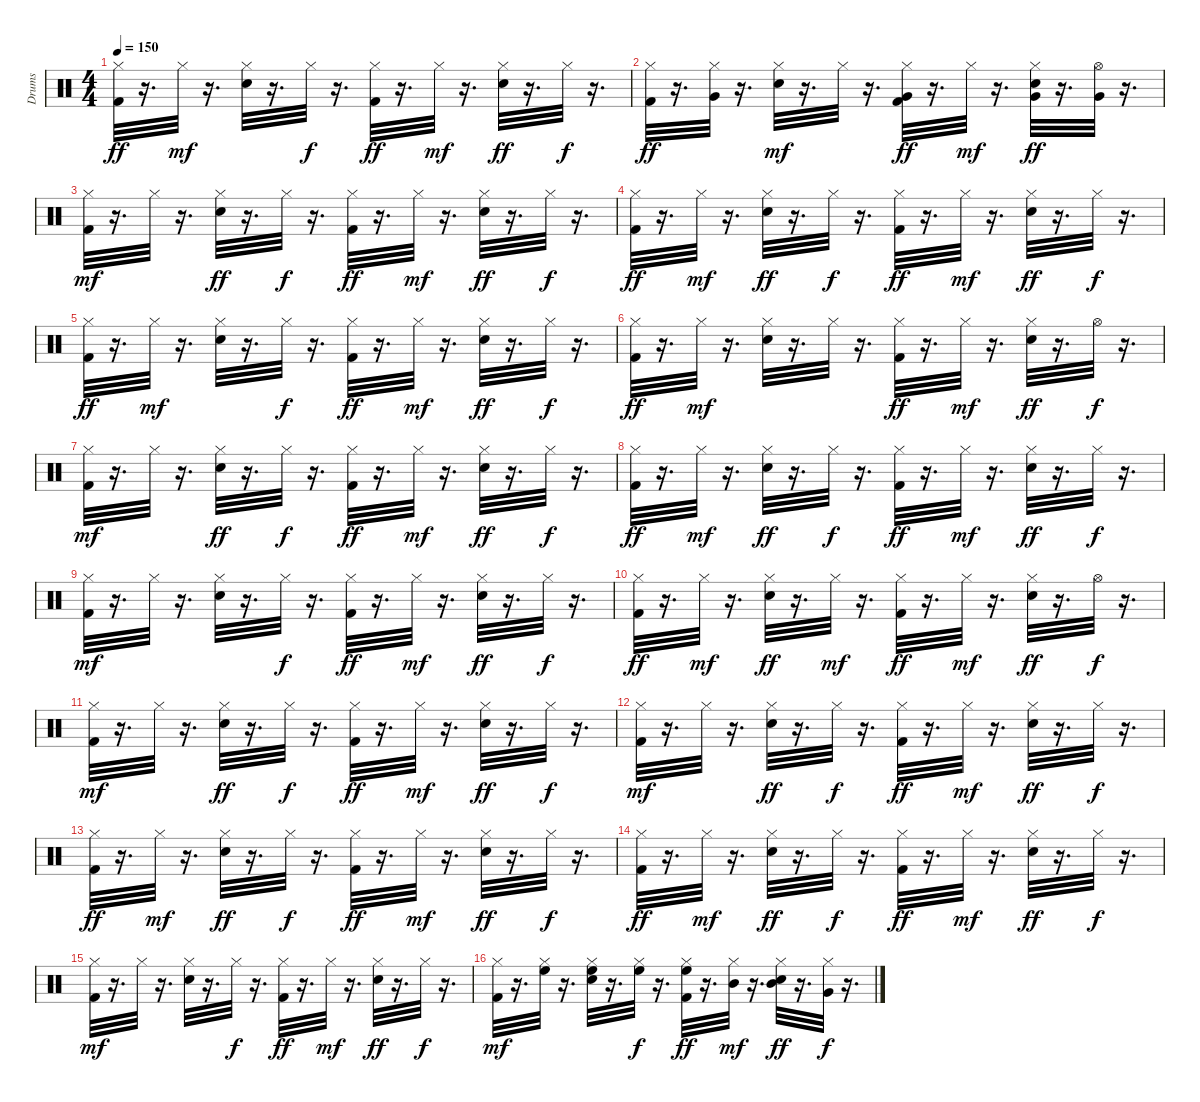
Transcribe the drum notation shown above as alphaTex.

\track ("Drums" "Drums") {instrument percussion}
\staff {score}
\articulation defaults
\ts (4 4)
\tempo 150
\clef neutral
\ks c
("Hi-Hat (closed)" "Kick (hit) 2").32{dy ff} r.16{d} "Hi-Hat (closed)".32{dy mf} r.16{d} ("Snare (hit) 2" "Hi-Hat (closed)").32 r.16{d} "Hi-Hat (closed)".32{dy f} r.16{d} ("Kick (hit) 2" "Hi-Hat (closed)").32{dy ff} r.16{d} "Hi-Hat (closed)".32{dy mf} r.16{d} ("Hi-Hat (closed)" "Snare (hit) 2").32{dy ff} r.16{d} "Hi-Hat (closed)".32{dy f} r.16{d} |
("Hi-Hat (closed)" "Kick (hit) 2").32{dy ff} r.16{d} ("Hi-Hat (closed)" "Very Low Tom (hit)").32 r.16{d} ("Snare (hit) 2" "Hi-Hat (closed)").32{dy mf} r.16{d} "Hi-Hat (closed)".32 r.16{d} ("Kick (hit) 2" "Hi-Hat (closed)" "Very Low Tom (hit)").32{dy ff} r.16{d} "Hi-Hat (closed)".32{dy mf} r.16{d} ("Snare (hit) 2" "Hi-Hat (closed)" "Very Low Tom (hit)").32{dy ff} r.16{d} ("Very Low Tom (hit)" "Hi-Hat (open)").32 r.16{d} |
("Kick (hit) 2" "Hi-Hat (closed)").32{dy mf} r.16{d} "Hi-Hat (closed)".32 r.16{d} ("Hi-Hat (closed)" "Snare (hit) 2").32{dy ff} r.16{d} "Hi-Hat (closed)".32{dy f} r.16{d} ("Kick (hit) 2" "Hi-Hat (closed)").32{dy ff} r.16{d} "Hi-Hat (closed)".32{dy mf} r.16{d} ("Hi-Hat (closed)" "Snare (hit) 2").32{dy ff} r.16{d} "Hi-Hat (closed)".32{dy f} r.16{d} |
("Hi-Hat (closed)" "Kick (hit) 2").32{dy ff} r.16{d} "Hi-Hat (closed)".32{dy mf} r.16{d} ("Hi-Hat (closed)" "Snare (hit) 2").32{dy ff} r.16{d} "Hi-Hat (closed)".32{dy f} r.16{d} ("Kick (hit) 2" "Hi-Hat (closed)").32{dy ff} r.16{d} "Hi-Hat (closed)".32{dy mf} r.16{d} ("Snare (hit) 2" "Hi-Hat (closed)").32{dy ff} r.16{d} "Hi-Hat (closed)".32{dy f} r.16{d} |
("Hi-Hat (closed)" "Kick (hit) 2").32{dy ff} r.16{d} "Hi-Hat (closed)".32{dy mf} r.16{d} ("Snare (hit) 2" "Hi-Hat (closed)").32 r.16{d} "Hi-Hat (closed)".32{dy f} r.16{d} ("Kick (hit) 2" "Hi-Hat (closed)").32{dy ff} r.16{d} "Hi-Hat (closed)".32{dy mf} r.16{d} ("Snare (hit) 2" "Hi-Hat (closed)").32{dy ff} r.16{d} "Hi-Hat (closed)".32{dy f} r.16{d} |
("Kick (hit) 2" "Hi-Hat (closed)").32{dy ff} r.16{d} "Hi-Hat (closed)".32{dy mf} r.16{d} ("Snare (hit) 2" "Hi-Hat (closed)").32 r.16{d} "Hi-Hat (closed)".32 r.16{d} ("Kick (hit) 2" "Hi-Hat (closed)").32{dy ff} r.16{d} "Hi-Hat (closed)".32{dy mf} r.16{d} ("Snare (hit) 2" "Hi-Hat (closed)").32{dy ff} r.16{d} "Hi-Hat (open)".32{dy f} r.16{d} |
("Kick (hit) 2" "Hi-Hat (closed)").32{dy mf} r.16{d} "Hi-Hat (closed)".32 r.16{d} ("Hi-Hat (closed)" "Snare (hit) 2").32{dy ff} r.16{d} "Hi-Hat (closed)".32{dy f} r.16{d} ("Hi-Hat (closed)" "Kick (hit) 2").32{dy ff} r.16{d} "Hi-Hat (closed)".32{dy mf} r.16{d} ("Snare (hit) 2" "Hi-Hat (closed)").32{dy ff} r.16{d} "Hi-Hat (closed)".32{dy f} r.16{d} |
("Hi-Hat (closed)" "Kick (hit) 2").32{dy ff} r.16{d} "Hi-Hat (closed)".32{dy mf} r.16{d} ("Hi-Hat (closed)" "Snare (hit) 2").32{dy ff} r.16{d} "Hi-Hat (closed)".32{dy f} r.16{d} ("Hi-Hat (closed)" "Kick (hit) 2").32{dy ff} r.16{d} "Hi-Hat (closed)".32{dy mf} r.16{d} ("Hi-Hat (closed)" "Snare (hit) 2").32{dy ff} r.16{d} "Hi-Hat (closed)".32{dy f} r.16{d} |
("Kick (hit) 2" "Hi-Hat (closed)").32{dy mf} r.16{d} "Hi-Hat (closed)".32 r.16{d} ("Snare (hit) 2" "Hi-Hat (closed)").32 r.16{d} "Hi-Hat (closed)".32{dy f} r.16{d} ("Kick (hit) 2" "Hi-Hat (closed)").32{dy ff} r.16{d} "Hi-Hat (closed)".32{dy mf} r.16{d} ("Hi-Hat (closed)" "Snare (hit) 2").32{dy ff} r.16{d} "Hi-Hat (closed)".32{dy f} r.16{d} |
("Hi-Hat (closed)" "Kick (hit) 2").32{dy ff} r.16{d} "Hi-Hat (closed)".32{dy mf} r.16{d} ("Hi-Hat (closed)" "Snare (hit) 2").32{dy ff} r.16{d} "Hi-Hat (closed)".32{dy mf} r.16{d} ("Kick (hit) 2" "Hi-Hat (closed)").32{dy ff} r.16{d} "Hi-Hat (closed)".32{dy mf} r.16{d} ("Hi-Hat (closed)" "Snare (hit) 2").32{dy ff} r.16{d} "Hi-Hat (open)".32{dy f} r.16{d} |
("Kick (hit) 2" "Hi-Hat (closed)").32{dy mf} r.16{d} "Hi-Hat (closed)".32 r.16{d} ("Hi-Hat (closed)" "Snare (hit) 2").32{dy ff} r.16{d} "Hi-Hat (closed)".32{dy f} r.16{d} ("Kick (hit) 2" "Hi-Hat (closed)").32{dy ff} r.16{d} "Hi-Hat (closed)".32{dy mf} r.16{d} ("Snare (hit) 2" "Hi-Hat (closed)").32{dy ff} r.16{d} "Hi-Hat (closed)".32{dy f} r.16{d} |
("Kick (hit) 2" "Hi-Hat (closed)").32{dy mf} r.16{d} "Hi-Hat (closed)".32 r.16{d} ("Hi-Hat (closed)" "Snare (hit) 2").32{dy ff} r.16{d} "Hi-Hat (closed)".32{dy f} r.16{d} ("Kick (hit) 2" "Hi-Hat (closed)").32{dy ff} r.16{d} "Hi-Hat (closed)".32{dy mf} r.16{d} ("Snare (hit) 2" "Hi-Hat (closed)").32{dy ff} r.16{d} "Hi-Hat (closed)".32{dy f} r.16{d} |
("Hi-Hat (closed)" "Kick (hit) 2").32{dy ff} r.16{d} "Hi-Hat (closed)".32{dy mf} r.16{d} ("Hi-Hat (closed)" "Snare (hit) 2").32{dy ff} r.16{d} "Hi-Hat (closed)".32{dy f} r.16{d} ("Hi-Hat (closed)" "Kick (hit) 2").32{dy ff} r.16{d} "Hi-Hat (closed)".32{dy mf} r.16{d} ("Snare (hit) 2" "Hi-Hat (closed)").32{dy ff} r.16{d} "Hi-Hat (closed)".32{dy f} r.16{d} |
("Hi-Hat (closed)" "Kick (hit) 2").32{dy ff} r.16{d} "Hi-Hat (closed)".32{dy mf} r.16{d} ("Hi-Hat (closed)" "Snare (hit) 2").32{dy ff} r.16{d} "Hi-Hat (closed)".32{dy f} r.16{d} ("Hi-Hat (closed)" "Kick (hit) 2").32{dy ff} r.16{d} "Hi-Hat (closed)".32{dy mf} r.16{d} ("Snare (hit) 2" "Hi-Hat (closed)").32{dy ff} r.16{d} "Hi-Hat (closed)".32{dy f} r.16{d} |
("Kick (hit) 2" "Hi-Hat (closed)").32{dy mf} r.16{d} "Hi-Hat (closed)".32 r.16{d} ("Snare (hit) 2" "Hi-Hat (closed)").32 r.16{d} "Hi-Hat (closed)".32{dy f} r.16{d} ("Hi-Hat (closed)" "Kick (hit) 2").32{dy ff} r.16{d} "Hi-Hat (closed)".32{dy mf} r.16{d} ("Snare (hit) 2" "Hi-Hat (closed)").32{dy ff} r.16{d} "Hi-Hat (closed)".32{dy f} r.16{d} |
("Kick (hit) 2" "Hi-Hat (closed)").32{dy mf} r.16{d} ("Hi-Hat (closed)" "High Floor Tom (hit)").32 r.16{d} ("Snare (hit) 2" "Hi-Hat (closed)" "High Floor Tom (hit)").32 r.16{d} ("Hi-Hat (closed)" "High Floor Tom (hit)").32{dy f} r.16{d} ("Kick (hit) 2" "Hi-Hat (closed)" "High Floor Tom (hit)").32{dy ff} r.16{d} ("Hi-Hat (closed)" "Mid Tom (hit)").32{dy mf} r.16{d} ("Hi-Hat (closed)" "Snare (hit) 2" "Mid Tom (hit)").32{dy ff} r.16{d} ("Hi-Hat (closed)" "Very Low Tom (hit)").32{dy f} r.16{d}
